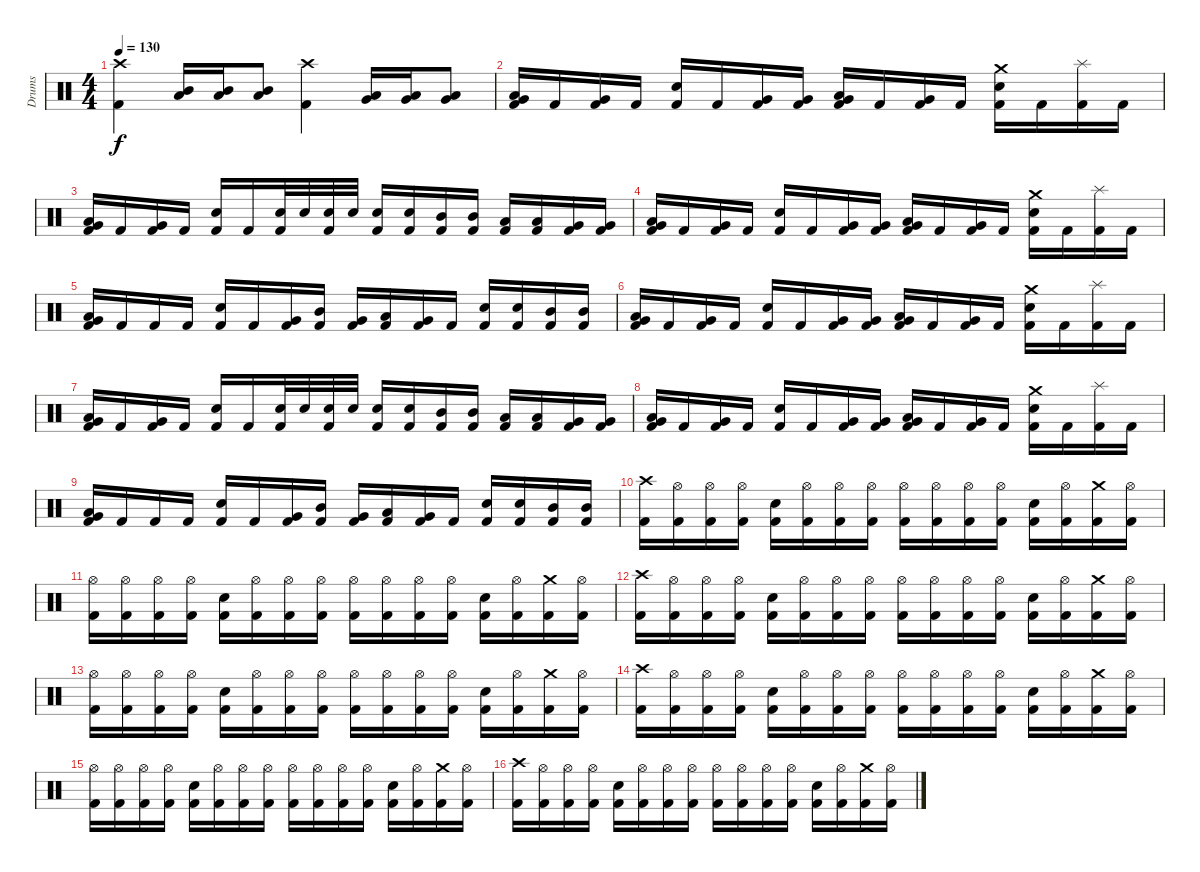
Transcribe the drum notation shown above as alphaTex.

\track ("Drums" "Drums") {instrument percussion}
\staff {score}
\articulation defaults
\ts (4 4)
\tempo 130
\clef neutral
\ks c
("Crash high (hit)" "Kick (hit) 2").4{dy f} ("Mid Tom (hit)" "Low Tom (hit)").16 ("Mid Tom (hit)" "Low Tom (hit)").16 ("Mid Tom (hit)" "Low Tom (hit)").8 ("Crash high (hit)" "Kick (hit) 2").4 ("Low Tom (hit)" "Very Low Tom (hit)").16 ("Low Tom (hit)" "Very Low Tom (hit)").16 ("Low Tom (hit)" "Very Low Tom (hit)").8 |
("Low Tom (hit)" "Very Low Tom (hit)" "Kick (hit) 2").16 "Kick (hit) 2".16 ("Very Low Tom (hit)" "Kick (hit) 2").16 "Kick (hit) 2".16 ("Electric Snare (hit)" "Kick (hit) 2").16 "Kick (hit) 2".16 ("Very Low Tom (hit)" "Kick (hit) 2").16 ("Very Low Tom (hit)" "Kick (hit) 2").16 ("Low Tom (hit)" "Very Low Tom (hit)" "Kick (hit) 2").16 "Kick (hit) 2".16 ("Very Low Tom (hit)" "Kick (hit) 2").16 "Kick (hit) 2".16 ("Crash medium (hit)" "Electric Snare (hit)" "Kick (hit) 2").16 "Kick (hit) 2".16 ("Splash (hit)" "Kick (hit) 2").16 "Kick (hit) 2".16 |
("Low Tom (hit)" "Very Low Tom (hit)" "Kick (hit) 2").16 "Kick (hit) 2".16 ("Very Low Tom (hit)" "Kick (hit) 2").16 "Kick (hit) 2".16 ("Electric Snare (hit)" "Kick (hit) 2").16 "Kick (hit) 2".16 ("Electric Snare (hit)" "Kick (hit) 2").32 "Electric Snare (hit)".32 ("Electric Snare (hit)" "Kick (hit) 2").32 "Electric Snare (hit)".32 ("Electric Snare (hit)" "Kick (hit) 2").16 ("Electric Snare (hit)" "Kick (hit) 2").16 ("Mid Tom (hit)" "Kick (hit) 2").16 ("Mid Tom (hit)" "Kick (hit) 2").16 ("Low Tom (hit)" "Kick (hit) 2").16 ("Low Tom (hit)" "Kick (hit) 2").16 ("Very Low Tom (hit)" "Kick (hit) 2").16 ("Very Low Tom (hit)" "Kick (hit) 2").16 |
("Low Tom (hit)" "Very Low Tom (hit)" "Kick (hit) 2").16 "Kick (hit) 2".16 ("Very Low Tom (hit)" "Kick (hit) 2").16 "Kick (hit) 2".16 ("Electric Snare (hit)" "Kick (hit) 2").16 "Kick (hit) 2".16 ("Very Low Tom (hit)" "Kick (hit) 2").16 ("Very Low Tom (hit)" "Kick (hit) 2").16 ("Low Tom (hit)" "Very Low Tom (hit)" "Kick (hit) 2").16 "Kick (hit) 2".16 ("Very Low Tom (hit)" "Kick (hit) 2").16 "Kick (hit) 2".16 ("Crash medium (hit)" "Electric Snare (hit)" "Kick (hit) 2").16 "Kick (hit) 2".16 ("Splash (hit)" "Kick (hit) 2").16 "Kick (hit) 2".16 |
("Low Tom (hit)" "Very Low Tom (hit)" "Kick (hit) 2").16 "Kick (hit) 2".16 "Kick (hit) 2".16 "Kick (hit) 2".16 ("Electric Snare (hit)" "Kick (hit) 2").16 "Kick (hit) 2".16 ("Very Low Tom (hit)" "Kick (hit) 2").16 ("Mid Tom (hit)" "Kick (hit) 2").16 ("Very Low Tom (hit)" "Kick (hit) 2").16 ("Low Tom (hit)" "Kick (hit) 2").16 ("Very Low Tom (hit)" "Kick (hit) 2").16 "Kick (hit) 2".16 ("Electric Snare (hit)" "Kick (hit) 2").16 ("Electric Snare (hit)" "Kick (hit) 2").16 ("Mid Tom (hit)" "Kick (hit) 2").16 ("Mid Tom (hit)" "Kick (hit) 2").16 |
("Low Tom (hit)" "Very Low Tom (hit)" "Kick (hit) 2").16 "Kick (hit) 2".16 ("Very Low Tom (hit)" "Kick (hit) 2").16 "Kick (hit) 2".16 ("Electric Snare (hit)" "Kick (hit) 2").16 "Kick (hit) 2".16 ("Very Low Tom (hit)" "Kick (hit) 2").16 ("Very Low Tom (hit)" "Kick (hit) 2").16 ("Low Tom (hit)" "Very Low Tom (hit)" "Kick (hit) 2").16 "Kick (hit) 2".16 ("Very Low Tom (hit)" "Kick (hit) 2").16 "Kick (hit) 2".16 ("Crash medium (hit)" "Electric Snare (hit)" "Kick (hit) 2").16 "Kick (hit) 2".16 ("Splash (hit)" "Kick (hit) 2").16 "Kick (hit) 2".16 |
("Low Tom (hit)" "Very Low Tom (hit)" "Kick (hit) 2").16 "Kick (hit) 2".16 ("Very Low Tom (hit)" "Kick (hit) 2").16 "Kick (hit) 2".16 ("Electric Snare (hit)" "Kick (hit) 2").16 "Kick (hit) 2".16 ("Electric Snare (hit)" "Kick (hit) 2").32 "Electric Snare (hit)".32 ("Electric Snare (hit)" "Kick (hit) 2").32 "Electric Snare (hit)".32 ("Electric Snare (hit)" "Kick (hit) 2").16 ("Electric Snare (hit)" "Kick (hit) 2").16 ("Mid Tom (hit)" "Kick (hit) 2").16 ("Mid Tom (hit)" "Kick (hit) 2").16 ("Low Tom (hit)" "Kick (hit) 2").16 ("Low Tom (hit)" "Kick (hit) 2").16 ("Very Low Tom (hit)" "Kick (hit) 2").16 ("Very Low Tom (hit)" "Kick (hit) 2").16 |
("Low Tom (hit)" "Very Low Tom (hit)" "Kick (hit) 2").16 "Kick (hit) 2".16 ("Very Low Tom (hit)" "Kick (hit) 2").16 "Kick (hit) 2".16 ("Electric Snare (hit)" "Kick (hit) 2").16 "Kick (hit) 2".16 ("Very Low Tom (hit)" "Kick (hit) 2").16 ("Very Low Tom (hit)" "Kick (hit) 2").16 ("Low Tom (hit)" "Very Low Tom (hit)" "Kick (hit) 2").16 "Kick (hit) 2".16 ("Very Low Tom (hit)" "Kick (hit) 2").16 "Kick (hit) 2".16 ("Crash medium (hit)" "Electric Snare (hit)" "Kick (hit) 2").16 "Kick (hit) 2".16 ("Splash (hit)" "Kick (hit) 2").16 "Kick (hit) 2".16 |
("Low Tom (hit)" "Very Low Tom (hit)" "Kick (hit) 2").16 "Kick (hit) 2".16 "Kick (hit) 2".16 "Kick (hit) 2".16 ("Electric Snare (hit)" "Kick (hit) 2").16 "Kick (hit) 2".16 ("Very Low Tom (hit)" "Kick (hit) 2").16 ("Mid Tom (hit)" "Kick (hit) 2").16 ("Very Low Tom (hit)" "Kick (hit) 2").16 ("Low Tom (hit)" "Kick (hit) 2").16 ("Very Low Tom (hit)" "Kick (hit) 2").16 "Kick (hit) 2".16 ("Electric Snare (hit)" "Kick (hit) 2").16 ("Electric Snare (hit)" "Kick (hit) 2").16 ("Mid Tom (hit)" "Kick (hit) 2").16 ("Mid Tom (hit)" "Kick (hit) 2").16 |
("Crash high (hit)" "Kick (hit) 2").16 ("Hi-Hat (open)" "Kick (hit) 2").16 ("Hi-Hat (open)" "Kick (hit) 2").16 ("Hi-Hat (open)" "Kick (hit) 2").16 ("Electric Snare (hit)" "Kick (hit) 2").16 ("Hi-Hat (open)" "Kick (hit) 2").16 ("Hi-Hat (open)" "Kick (hit) 2").16 ("Hi-Hat (open)" "Kick (hit) 2").16 ("Hi-Hat (open)" "Kick (hit) 2").16 ("Hi-Hat (open)" "Kick (hit) 2").16 ("Hi-Hat (open)" "Kick (hit) 2").16 ("Hi-Hat (open)" "Kick (hit) 2").16 ("Electric Snare (hit)" "Kick (hit) 2").16 ("Hi-Hat (open)" "Kick (hit) 2").16 ("Crash medium (hit)" "Kick (hit) 2").16 ("Hi-Hat (open)" "Kick (hit) 2").16 |
("Hi-Hat (open)" "Kick (hit) 2").16 ("Hi-Hat (open)" "Kick (hit) 2").16 ("Hi-Hat (open)" "Kick (hit) 2").16 ("Hi-Hat (open)" "Kick (hit) 2").16 ("Electric Snare (hit)" "Kick (hit) 2").16 ("Hi-Hat (open)" "Kick (hit) 2").16 ("Hi-Hat (open)" "Kick (hit) 2").16 ("Hi-Hat (open)" "Kick (hit) 2").16 ("Hi-Hat (open)" "Kick (hit) 2").16 ("Hi-Hat (open)" "Kick (hit) 2").16 ("Hi-Hat (open)" "Kick (hit) 2").16 ("Hi-Hat (open)" "Kick (hit) 2").16 ("Electric Snare (hit)" "Kick (hit) 2").16 ("Hi-Hat (open)" "Kick (hit) 2").16 ("Crash medium (hit)" "Kick (hit) 2").16 ("Hi-Hat (open)" "Kick (hit) 2").16 |
("Crash high (hit)" "Kick (hit) 2").16 ("Hi-Hat (open)" "Kick (hit) 2").16 ("Hi-Hat (open)" "Kick (hit) 2").16 ("Hi-Hat (open)" "Kick (hit) 2").16 ("Electric Snare (hit)" "Kick (hit) 2").16 ("Hi-Hat (open)" "Kick (hit) 2").16 ("Hi-Hat (open)" "Kick (hit) 2").16 ("Hi-Hat (open)" "Kick (hit) 2").16 ("Hi-Hat (open)" "Kick (hit) 2").16 ("Hi-Hat (open)" "Kick (hit) 2").16 ("Hi-Hat (open)" "Kick (hit) 2").16 ("Hi-Hat (open)" "Kick (hit) 2").16 ("Electric Snare (hit)" "Kick (hit) 2").16 ("Hi-Hat (open)" "Kick (hit) 2").16 ("Crash medium (hit)" "Kick (hit) 2").16 ("Hi-Hat (open)" "Kick (hit) 2").16 |
("Hi-Hat (open)" "Kick (hit) 2").16 ("Hi-Hat (open)" "Kick (hit) 2").16 ("Hi-Hat (open)" "Kick (hit) 2").16 ("Hi-Hat (open)" "Kick (hit) 2").16 ("Electric Snare (hit)" "Kick (hit) 2").16 ("Hi-Hat (open)" "Kick (hit) 2").16 ("Hi-Hat (open)" "Kick (hit) 2").16 ("Hi-Hat (open)" "Kick (hit) 2").16 ("Hi-Hat (open)" "Kick (hit) 2").16 ("Hi-Hat (open)" "Kick (hit) 2").16 ("Hi-Hat (open)" "Kick (hit) 2").16 ("Hi-Hat (open)" "Kick (hit) 2").16 ("Electric Snare (hit)" "Kick (hit) 2").16 ("Hi-Hat (open)" "Kick (hit) 2").16 ("Crash medium (hit)" "Kick (hit) 2").16 ("Hi-Hat (open)" "Kick (hit) 2").16 |
("Crash high (hit)" "Kick (hit) 2").16 ("Hi-Hat (open)" "Kick (hit) 2").16 ("Hi-Hat (open)" "Kick (hit) 2").16 ("Hi-Hat (open)" "Kick (hit) 2").16 ("Electric Snare (hit)" "Kick (hit) 2").16 ("Hi-Hat (open)" "Kick (hit) 2").16 ("Hi-Hat (open)" "Kick (hit) 2").16 ("Hi-Hat (open)" "Kick (hit) 2").16 ("Hi-Hat (open)" "Kick (hit) 2").16 ("Hi-Hat (open)" "Kick (hit) 2").16 ("Hi-Hat (open)" "Kick (hit) 2").16 ("Hi-Hat (open)" "Kick (hit) 2").16 ("Electric Snare (hit)" "Kick (hit) 2").16 ("Hi-Hat (open)" "Kick (hit) 2").16 ("Crash medium (hit)" "Kick (hit) 2").16 ("Hi-Hat (open)" "Kick (hit) 2").16 |
("Hi-Hat (open)" "Kick (hit) 2").16 ("Hi-Hat (open)" "Kick (hit) 2").16 ("Hi-Hat (open)" "Kick (hit) 2").16 ("Hi-Hat (open)" "Kick (hit) 2").16 ("Electric Snare (hit)" "Kick (hit) 2").16 ("Hi-Hat (open)" "Kick (hit) 2").16 ("Hi-Hat (open)" "Kick (hit) 2").16 ("Hi-Hat (open)" "Kick (hit) 2").16 ("Hi-Hat (open)" "Kick (hit) 2").16 ("Hi-Hat (open)" "Kick (hit) 2").16 ("Hi-Hat (open)" "Kick (hit) 2").16 ("Hi-Hat (open)" "Kick (hit) 2").16 ("Electric Snare (hit)" "Kick (hit) 2").16 ("Hi-Hat (open)" "Kick (hit) 2").16 ("Crash medium (hit)" "Kick (hit) 2").16 ("Hi-Hat (open)" "Kick (hit) 2").16 |
("Crash high (hit)" "Kick (hit) 2").16 ("Hi-Hat (open)" "Kick (hit) 2").16 ("Hi-Hat (open)" "Kick (hit) 2").16 ("Hi-Hat (open)" "Kick (hit) 2").16 ("Electric Snare (hit)" "Kick (hit) 2").16 ("Hi-Hat (open)" "Kick (hit) 2").16 ("Hi-Hat (open)" "Kick (hit) 2").16 ("Hi-Hat (open)" "Kick (hit) 2").16 ("Hi-Hat (open)" "Kick (hit) 2").16 ("Hi-Hat (open)" "Kick (hit) 2").16 ("Hi-Hat (open)" "Kick (hit) 2").16 ("Hi-Hat (open)" "Kick (hit) 2").16 ("Electric Snare (hit)" "Kick (hit) 2").16 ("Hi-Hat (open)" "Kick (hit) 2").16 ("Crash medium (hit)" "Kick (hit) 2").16 ("Hi-Hat (open)" "Kick (hit) 2").16
